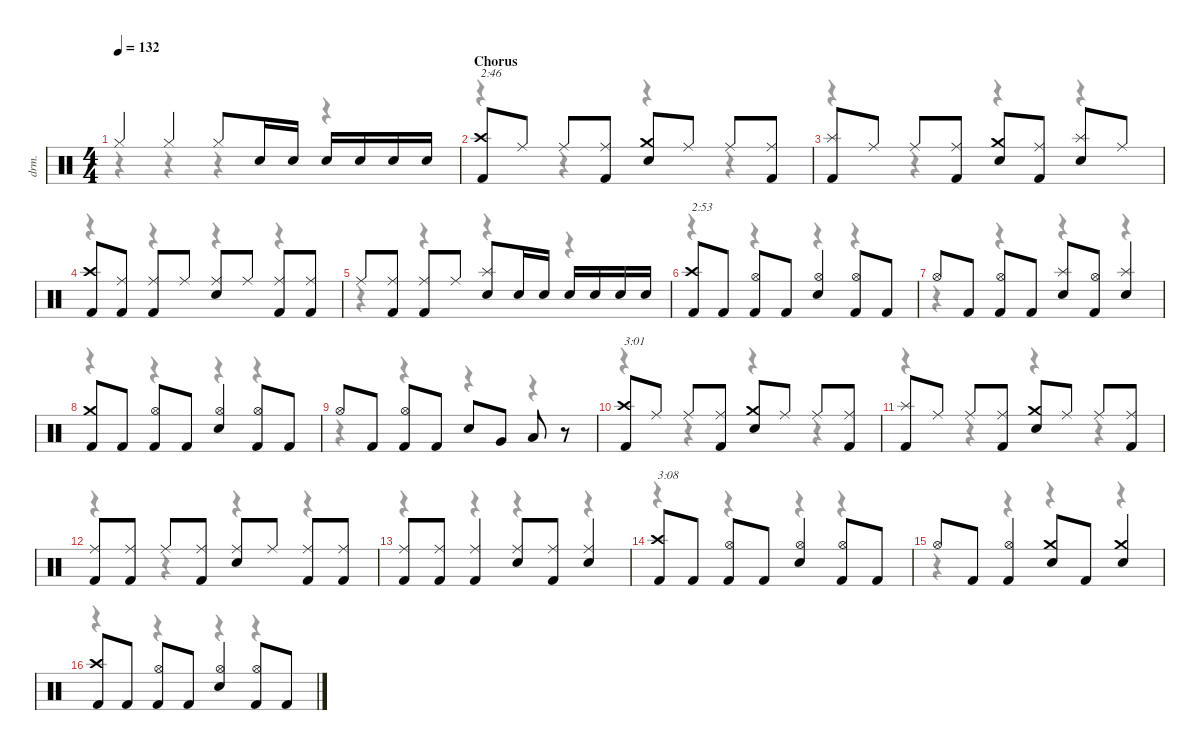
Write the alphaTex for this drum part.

\defaultSystemsLayout 4
\hideDynamics
\bracketExtendMode nobrackets
\otherSystemsTrackNameOrientation horizontal
\track ("Drums" "drm.") {instrument percussion}
\staff {score}
\articulation defaults
\voice
\ts (4 4)
\tempo 132
\clef neutral
\ks c "Hi-Hat (closed)".4{dy f} "Hi-Hat (closed)".4 "Hi-Hat (closed)".8 "Snare (hit) 2".16{dy fff} "Snare (hit) 2".16 "Snare (hit) 2".16 "Snare (hit) 2".16 "Snare (hit) 2".16 "Snare (hit) 2".16
|
\section ("" "Chorus")
("Crash high (hit)" "Kick (hit) 2").8{txt "2:46" dy f} "Ride (middle)".8 "Ride (middle)".8 ("Ride (middle)" "Kick (hit) 2").8 ("Crash medium (hit)" "Snare (hit) 2").8 "Ride (middle)".8 "Ride (middle)".8 ("Ride (middle)" "Kick (hit) 2").8 |
("Splash (hit)" "Kick (hit) 2").8 "Ride (middle)".8 "Ride (middle)".8 ("Ride (middle)" "Kick (hit) 2").8 ("Crash medium (hit)" "Snare (hit) 2").8 ("Ride (middle)" "Kick (hit) 2").8 ("Splash (hit)" "Snare (hit) 2").8 "Ride (middle)".8 |
("Crash high (hit)" "Kick (hit) 2").8 ("Ride (middle)" "Kick (hit) 2").8 ("Ride (middle)" "Kick (hit) 2").8 "Ride (middle)".8 ("Ride (middle)" "Snare (hit) 2").8 "Ride (middle)".8 ("Ride (middle)" "Kick (hit) 2").8 ("Ride (middle)" "Kick (hit) 2").8 |
"Ride (middle)".8 ("Ride (middle)" "Kick (hit) 2").8 ("Ride (middle)" "Kick (hit) 2").8 "Ride (middle)".8 ("Splash (hit)" "Snare (hit) 2").8 "Snare (hit) 2".16{dy fff} "Snare (hit) 2".16 "Snare (hit) 2".16 "Snare (hit) 2".16 "Snare (hit) 2".16 "Snare (hit) 2".16 |
("Crash high (hit)" "Kick (hit) 2").8{txt "2:53" dy f} "Kick (hit) 2".8{dy fff} ("Hi-Hat (open)" "Kick (hit) 2").8{dy f} "Kick (hit) 2".8{dy fff} ("Hi-Hat (open)" "Snare (hit) 2").4{dy f} ("Hi-Hat (open)" "Kick (hit) 2").8 "Kick (hit) 2".8{dy fff} |
"Hi-Hat (open)".8{dy f} "Kick (hit) 2".8{dy fff} ("Hi-Hat (open)" "Kick (hit) 2").8{dy f} "Kick (hit) 2".8{dy fff} ("Splash (hit)" "Snare (hit) 2").8{dy f} ("Hi-Hat (open)" "Kick (hit) 2").8 ("Splash (hit)" "Snare (hit) 2").4 |
("Crash medium (hit)" "Kick (hit) 2").8 "Kick (hit) 2".8{dy fff} ("Hi-Hat (open)" "Kick (hit) 2").8{dy f} "Kick (hit) 2".8{dy fff} ("Hi-Hat (open)" "Snare (hit) 2").4{dy f} ("Hi-Hat (open)" "Kick (hit) 2").8 "Kick (hit) 2".8{dy fff} |
"Hi-Hat (open)".8{dy f} "Kick (hit) 2".8{dy fff} ("Hi-Hat (open)" "Kick (hit) 2").8{dy f} "Kick (hit) 2".8{dy fff} "Snare (hit) 2".8 "Very Low Tom (hit)".8 "Low Floor Tom (hit)".8 r.8 |
("Crash high (hit)" "Kick (hit) 2").8{txt "3:01" dy f} "Ride (middle)".8 "Ride (middle)".8 ("Ride (middle)" "Kick (hit) 2").8 ("Crash medium (hit)" "Snare (hit) 2").8 "Ride (middle)".8 "Ride (middle)".8 ("Ride (middle)" "Kick (hit) 2").8 |
("Splash (hit)" "Kick (hit) 2").8 "Ride (middle)".8 "Ride (middle)".8 ("Ride (middle)" "Kick (hit) 2").8 ("Crash medium (hit)" "Snare (hit) 2").8 "Ride (middle)".8 "Ride (middle)".8 ("Ride (middle)" "Kick (hit) 2").8 |
("Ride (middle)" "Kick (hit) 2").8 ("Ride (middle)" "Kick (hit) 2").8 "Ride (middle)".8 ("Ride (middle)" "Kick (hit) 2").8 ("Ride (middle)" "Snare (hit) 2").8 "Ride (middle)".8 ("Ride (middle)" "Kick (hit) 2").8 ("Ride (middle)" "Kick (hit) 2").8 |
("Ride (middle)" "Kick (hit) 2").8 ("Ride (middle)" "Kick (hit) 2").8 ("Ride (middle)" "Kick (hit) 2").4 ("Ride (middle)" "Snare (hit) 2").8 ("Ride (middle)" "Kick (hit) 2").8 ("Ride (middle)" "Snare (hit) 2").4 |
("Crash high (hit)" "Kick (hit) 2").8{txt "3:08"} "Kick (hit) 2".8{dy fff} ("Hi-Hat (open)" "Kick (hit) 2").8{dy f} "Kick (hit) 2".8{dy fff} ("Hi-Hat (open)" "Snare (hit) 2").4{dy f} ("Hi-Hat (open)" "Kick (hit) 2").8 "Kick (hit) 2".8{dy fff} |
"Hi-Hat (open)".8{dy f} "Kick (hit) 2".8{dy fff} ("Hi-Hat (open)" "Kick (hit) 2").4{dy f} ("Crash medium (hit)" "Snare (hit) 2").8 "Kick (hit) 2".8{dy fff} ("Crash medium (hit)" "Snare (hit) 2").4{dy f} |
("Crash high (hit)" "Kick (hit) 2").8 "Kick (hit) 2".8{dy fff} ("Hi-Hat (open)" "Kick (hit) 2").8{dy f} "Kick (hit) 2".8{dy fff} ("Hi-Hat (open)" "Snare (hit) 2").4{dy f} ("Hi-Hat (open)" "Kick (hit) 2").8 "Kick (hit) 2".8{dy fff}
\voice
\clef neutral
\ottava regular
\simile none
\ks c
r.4{dy mf} r.4 r.4 r.4 |
r.4 r.4 r.4 r.4 |
r.4 r.4 r.4 r.4 |
r.4 r.4 r.4 r.4 |
r.4 r.4 r.4 r.4 |
r.4 r.4 r.4 r.4 |
r.4 r.4 r.4 r.4 |
r.4 r.4 r.4 r.4 |
r.4 r.4 r.4 r.4 |
r.4 r.4 r.4 r.4 |
r.4 r.4 r.4 r.4 |
r.4 r.4 r.4 r.4 |
r.4 r.4 r.4 r.4 |
r.4 r.4 r.4 r.4 |
r.4 r.4 r.4 r.4 |
r.4 r.4 r.4 r.4
